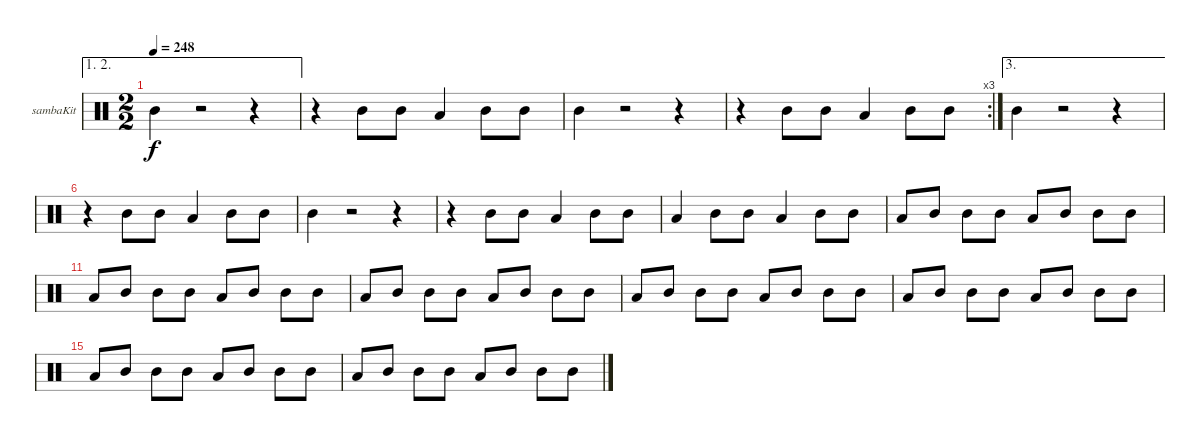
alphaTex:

\bracketExtendMode nobrackets
\firstSystemTrackNameOrientation horizontal
\otherSystemsTrackNameOrientation horizontal
\defaultBarNumberDisplay FirstOfSystem
\track ("Kit-Samba" "sambaKit") {instrument percussion}
\staff {score}
\articulation defaults
\ae (1 2)
\ts (2 2)
\tempo 248
\clef neutral
\ks c "Mid Tom (hit)".4{dy f}
r.2 r.4 |
r.4 "Mid Tom (hit)".8 "Mid Tom (hit)".8 "Low Tom (hit)".4 "Mid Tom (hit)".8 "Mid Tom (hit)".8 |
"Mid Tom (hit)".4 r.2 r.4 |
\rc 3
r.4 "Mid Tom (hit)".8 "Mid Tom (hit)".8 "Low Tom (hit)".4 "Mid Tom (hit)".8 "Mid Tom (hit)".8 |
\ae 3 "Mid Tom (hit)".4
r.2 r.4 |
r.4 "Mid Tom (hit)".8 "Mid Tom (hit)".8 "Low Tom (hit)".4 "Mid Tom (hit)".8 "Mid Tom (hit)".8 |
"Mid Tom (hit)".4 r.2 r.4 |
r.4 "Mid Tom (hit)".8 "Mid Tom (hit)".8 "Low Tom (hit)".4 "Mid Tom (hit)".8 "Mid Tom (hit)".8 |
"Low Tom (hit)".4 "Mid Tom (hit)".8 "Mid Tom (hit)".8 "Low Tom (hit)".4 "Mid Tom (hit)".8 "Mid Tom (hit)".8 |
"Low Tom (hit)".8 "Mid Tom (hit)".8 "Mid Tom (hit)".8 "Mid Tom (hit)".8 "Low Tom (hit)".8 "Mid Tom (hit)".8 "Mid Tom (hit)".8 "Mid Tom (hit)".8 |
"Low Tom (hit)".8 "Mid Tom (hit)".8 "Mid Tom (hit)".8 "Mid Tom (hit)".8 "Low Tom (hit)".8 "Mid Tom (hit)".8 "Mid Tom (hit)".8 "Mid Tom (hit)".8 |
"Low Tom (hit)".8 "Mid Tom (hit)".8 "Mid Tom (hit)".8 "Mid Tom (hit)".8 "Low Tom (hit)".8 "Mid Tom (hit)".8 "Mid Tom (hit)".8 "Mid Tom (hit)".8 |
"Low Tom (hit)".8 "Mid Tom (hit)".8 "Mid Tom (hit)".8 "Mid Tom (hit)".8 "Low Tom (hit)".8 "Mid Tom (hit)".8 "Mid Tom (hit)".8 "Mid Tom (hit)".8 |
"Low Tom (hit)".8 "Mid Tom (hit)".8 "Mid Tom (hit)".8 "Mid Tom (hit)".8 "Low Tom (hit)".8 "Mid Tom (hit)".8 "Mid Tom (hit)".8 "Mid Tom (hit)".8 |
"Low Tom (hit)".8 "Mid Tom (hit)".8 "Mid Tom (hit)".8 "Mid Tom (hit)".8 "Low Tom (hit)".8 "Mid Tom (hit)".8 "Mid Tom (hit)".8 "Mid Tom (hit)".8 |
"Low Tom (hit)".8 "Mid Tom (hit)".8 "Mid Tom (hit)".8 "Mid Tom (hit)".8 "Low Tom (hit)".8 "Mid Tom (hit)".8 "Mid Tom (hit)".8 "Mid Tom (hit)".8
